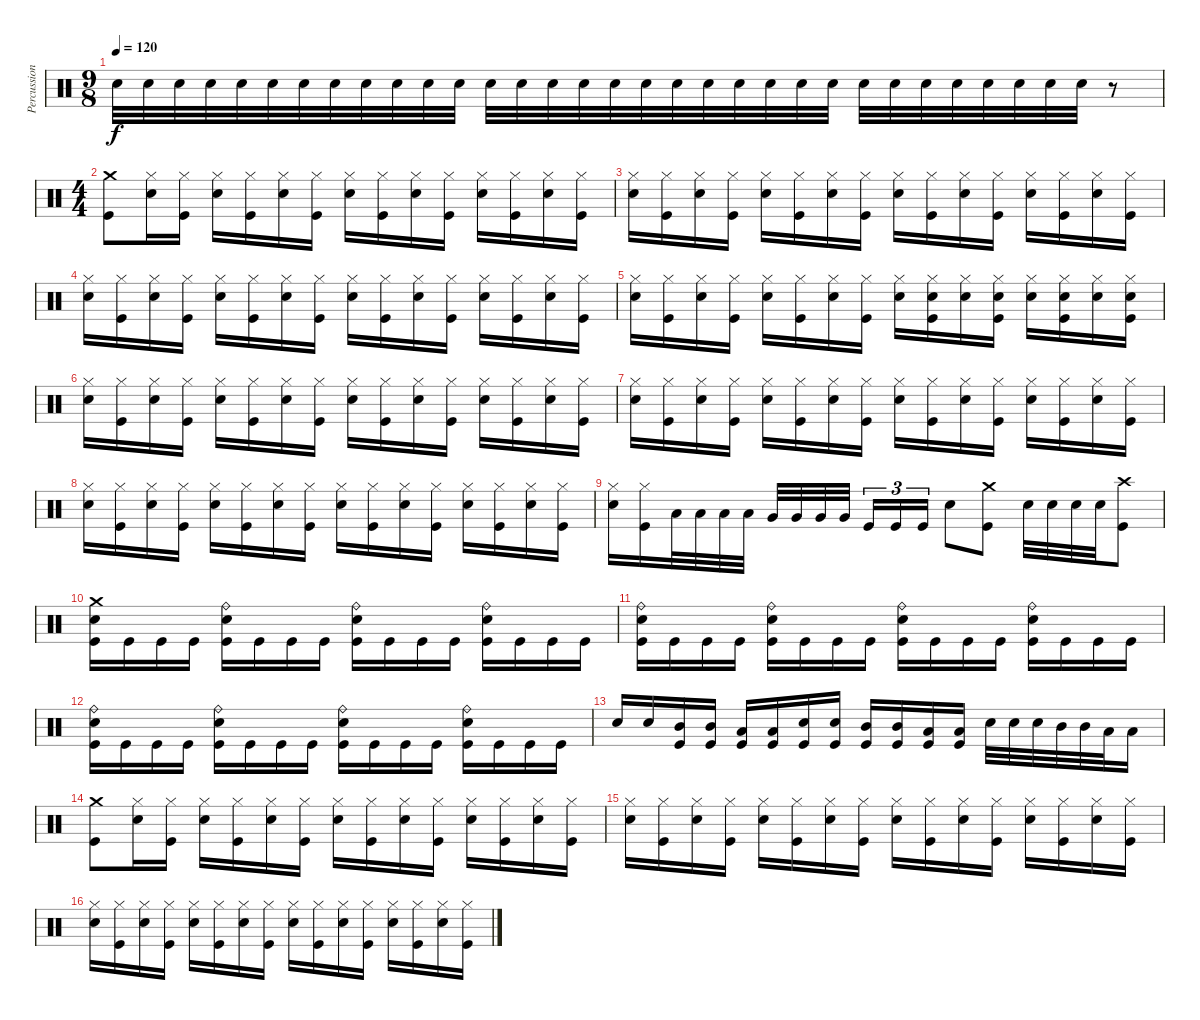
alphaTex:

\track ("Percussions" "Percussion") {instrument percussion}
\staff {score}
\articulation defaults
\ts (9 8)
\tempo 120
\clef neutral
\ks c "Electric Snare (hit)".32{dy f} "Electric Snare (hit)".32 "Electric Snare (hit)".32 "Electric Snare (hit)".32 "Electric Snare (hit)".32 "Electric Snare (hit)".32 "Electric Snare (hit)".32 "Electric Snare (hit)".32 "Electric Snare (hit)".32 "Electric Snare (hit)".32 "Electric Snare (hit)".32 "Electric Snare (hit)".32 "Electric Snare (hit)".32 "Electric Snare (hit)".32 "Electric Snare (hit)".32 "Electric Snare (hit)".32 "Electric Snare (hit)".32 "Electric Snare (hit)".32 "Electric Snare (hit)".32 "Electric Snare (hit)".32 "Electric Snare (hit)".32 "Electric Snare (hit)".32 "Electric Snare (hit)".32 "Electric Snare (hit)".32 "Electric Snare (hit)".32 "Electric Snare (hit)".32 "Electric Snare (hit)".32 "Electric Snare (hit)".32 "Electric Snare (hit)".32 "Electric Snare (hit)".32 "Electric Snare (hit)".32 "Electric Snare (hit)".32
r.8 |
\ts (4 4)
("Kick (hit)" "Crash medium (hit)").8 ("Electric Snare (hit)" "Hi-Hat (closed)").16 ("Kick (hit)" "Hi-Hat (closed)").16 ("Electric Snare (hit)" "Hi-Hat (closed)").16 ("Kick (hit)" "Hi-Hat (closed)").16 ("Electric Snare (hit)" "Hi-Hat (closed)").16 ("Kick (hit)" "Hi-Hat (closed)").16 ("Electric Snare (hit)" "Hi-Hat (closed)").16 ("Kick (hit)" "Hi-Hat (closed)").16 ("Electric Snare (hit)" "Hi-Hat (closed)").16 ("Kick (hit)" "Hi-Hat (closed)").16 ("Electric Snare (hit)" "Hi-Hat (closed)").16 ("Kick (hit)" "Hi-Hat (closed)").16 ("Electric Snare (hit)" "Hi-Hat (closed)").16 ("Kick (hit)" "Hi-Hat (closed)").16 |
("Electric Snare (hit)" "Hi-Hat (closed)").16 ("Kick (hit)" "Hi-Hat (closed)").16 ("Electric Snare (hit)" "Hi-Hat (closed)").16 ("Kick (hit)" "Hi-Hat (closed)").16 ("Electric Snare (hit)" "Hi-Hat (closed)").16 ("Kick (hit)" "Hi-Hat (closed)").16 ("Electric Snare (hit)" "Hi-Hat (closed)").16 ("Kick (hit)" "Hi-Hat (closed)").16 ("Electric Snare (hit)" "Hi-Hat (closed)").16 ("Kick (hit)" "Hi-Hat (closed)").16 ("Electric Snare (hit)" "Hi-Hat (closed)").16 ("Kick (hit)" "Hi-Hat (closed)").16 ("Electric Snare (hit)" "Hi-Hat (closed)").16 ("Kick (hit)" "Hi-Hat (closed)").16 ("Electric Snare (hit)" "Hi-Hat (closed)").16 ("Kick (hit)" "Hi-Hat (closed)").16 |
("Electric Snare (hit)" "Hi-Hat (closed)").16 ("Kick (hit)" "Hi-Hat (closed)").16 ("Electric Snare (hit)" "Hi-Hat (closed)").16 ("Kick (hit)" "Hi-Hat (closed)").16 ("Electric Snare (hit)" "Hi-Hat (closed)").16 ("Kick (hit)" "Hi-Hat (closed)").16 ("Electric Snare (hit)" "Hi-Hat (closed)").16 ("Kick (hit)" "Hi-Hat (closed)").16 ("Electric Snare (hit)" "Hi-Hat (closed)").16 ("Kick (hit)" "Hi-Hat (closed)").16 ("Electric Snare (hit)" "Hi-Hat (closed)").16 ("Kick (hit)" "Hi-Hat (closed)").16 ("Electric Snare (hit)" "Hi-Hat (closed)").16 ("Kick (hit)" "Hi-Hat (closed)").16 ("Electric Snare (hit)" "Hi-Hat (closed)").16 ("Kick (hit)" "Hi-Hat (closed)").16 |
("Electric Snare (hit)" "Hi-Hat (closed)").16 ("Kick (hit)" "Hi-Hat (closed)").16 ("Electric Snare (hit)" "Hi-Hat (closed)").16 ("Kick (hit)" "Hi-Hat (closed)").16 ("Electric Snare (hit)" "Hi-Hat (closed)").16 ("Kick (hit)" "Hi-Hat (closed)").16 ("Electric Snare (hit)" "Hi-Hat (closed)").16 ("Kick (hit)" "Hi-Hat (closed)").16 ("Electric Snare (hit)" "Hi-Hat (closed)").16 ("Kick (hit)" "Electric Snare (hit)" "Hi-Hat (closed)").16 ("Electric Snare (hit)" "Hi-Hat (closed)").16 ("Kick (hit)" "Electric Snare (hit)" "Hi-Hat (closed)").16 ("Electric Snare (hit)" "Hi-Hat (closed)").16 ("Kick (hit)" "Electric Snare (hit)" "Hi-Hat (closed)").16 ("Electric Snare (hit)" "Hi-Hat (closed)").16 ("Kick (hit)" "Electric Snare (hit)" "Hi-Hat (closed)").16 |
("Electric Snare (hit)" "Hi-Hat (closed)").16 ("Kick (hit)" "Hi-Hat (closed)").16 ("Electric Snare (hit)" "Hi-Hat (closed)").16 ("Kick (hit)" "Hi-Hat (closed)").16 ("Electric Snare (hit)" "Hi-Hat (closed)").16 ("Kick (hit)" "Hi-Hat (closed)").16 ("Electric Snare (hit)" "Hi-Hat (closed)").16 ("Kick (hit)" "Hi-Hat (closed)").16 ("Electric Snare (hit)" "Hi-Hat (closed)").16 ("Kick (hit)" "Hi-Hat (closed)").16 ("Electric Snare (hit)" "Hi-Hat (closed)").16 ("Kick (hit)" "Hi-Hat (closed)").16 ("Electric Snare (hit)" "Hi-Hat (closed)").16 ("Kick (hit)" "Hi-Hat (closed)").16 ("Electric Snare (hit)" "Hi-Hat (closed)").16 ("Kick (hit)" "Hi-Hat (closed)").16 |
("Electric Snare (hit)" "Hi-Hat (closed)").16 ("Kick (hit)" "Hi-Hat (closed)").16 ("Electric Snare (hit)" "Hi-Hat (closed)").16 ("Kick (hit)" "Hi-Hat (closed)").16 ("Electric Snare (hit)" "Hi-Hat (closed)").16 ("Kick (hit)" "Hi-Hat (closed)").16 ("Electric Snare (hit)" "Hi-Hat (closed)").16 ("Kick (hit)" "Hi-Hat (closed)").16 ("Electric Snare (hit)" "Hi-Hat (closed)").16 ("Kick (hit)" "Hi-Hat (closed)").16 ("Electric Snare (hit)" "Hi-Hat (closed)").16 ("Kick (hit)" "Hi-Hat (closed)").16 ("Electric Snare (hit)" "Hi-Hat (closed)").16 ("Kick (hit)" "Hi-Hat (closed)").16 ("Electric Snare (hit)" "Hi-Hat (closed)").16 ("Kick (hit)" "Hi-Hat (closed)").16 |
("Electric Snare (hit)" "Hi-Hat (closed)").16 ("Kick (hit)" "Hi-Hat (closed)").16 ("Electric Snare (hit)" "Hi-Hat (closed)").16 ("Kick (hit)" "Hi-Hat (closed)").16 ("Electric Snare (hit)" "Hi-Hat (closed)").16 ("Kick (hit)" "Hi-Hat (closed)").16 ("Electric Snare (hit)" "Hi-Hat (closed)").16 ("Kick (hit)" "Hi-Hat (closed)").16 ("Electric Snare (hit)" "Hi-Hat (closed)").16 ("Kick (hit)" "Hi-Hat (closed)").16 ("Electric Snare (hit)" "Hi-Hat (closed)").16 ("Kick (hit)" "Hi-Hat (closed)").16 ("Electric Snare (hit)" "Hi-Hat (closed)").16 ("Kick (hit)" "Hi-Hat (closed)").16 ("Electric Snare (hit)" "Hi-Hat (closed)").16 ("Kick (hit)" "Hi-Hat (closed)").16 |
("Electric Snare (hit)" "Hi-Hat (closed)").16 ("Kick (hit)" "Hi-Hat (closed)").16 "Low Tom (hit)".32 "Low Tom (hit)".32 "Low Tom (hit)".32 "Low Tom (hit)".32 "Very Low Tom (hit)".32 "Very Low Tom (hit)".32 "Very Low Tom (hit)".32 "Very Low Tom (hit)".32 "Kick (hit)".16{tu (3 2)} "Kick (hit)".16{tu (3 2)} "Kick (hit)".16{tu (3 2)} "Electric Snare (hit)".8 ("Kick (hit)" "Crash medium (hit)").8 "Electric Snare (hit)".32 "Electric Snare (hit)".32 "Electric Snare (hit)".32 "Electric Snare (hit)".32 ("Kick (hit)" "Crash high (hit)").8 |
("Kick (hit)" "Electric Snare (hit)" "Crash medium (hit)").16 "Kick (hit)".16 "Kick (hit)".16 "Kick (hit)".16 ("Kick (hit)" "Electric Snare (hit)" "Ride (bell)").16 "Kick (hit)".16 "Kick (hit)".16 "Kick (hit)".16 ("Kick (hit)" "Electric Snare (hit)" "Ride (bell)").16 "Kick (hit)".16 "Kick (hit)".16 "Kick (hit)".16 ("Kick (hit)" "Electric Snare (hit)" "Ride (bell)").16 "Kick (hit)".16 "Kick (hit)".16 "Kick (hit)".16 |
("Kick (hit)" "Electric Snare (hit)" "Ride (bell)").16 "Kick (hit)".16 "Kick (hit)".16 "Kick (hit)".16 ("Kick (hit)" "Electric Snare (hit)" "Ride (bell)").16 "Kick (hit)".16 "Kick (hit)".16 "Kick (hit)".16 ("Kick (hit)" "Electric Snare (hit)" "Ride (bell)").16 "Kick (hit)".16 "Kick (hit)".16 "Kick (hit)".16 ("Kick (hit)" "Electric Snare (hit)" "Ride (bell)").16 "Kick (hit)".16 "Kick (hit)".16 "Kick (hit)".16 |
("Kick (hit)" "Electric Snare (hit)" "Ride (bell)").16 "Kick (hit)".16 "Kick (hit)".16 "Kick (hit)".16 ("Kick (hit)" "Electric Snare (hit)" "Ride (bell)").16 "Kick (hit)".16 "Kick (hit)".16 "Kick (hit)".16 ("Kick (hit)" "Electric Snare (hit)" "Ride (bell)").16 "Kick (hit)".16 "Kick (hit)".16 "Kick (hit)".16 ("Kick (hit)" "Electric Snare (hit)" "Ride (bell)").16 "Kick (hit)".16 "Kick (hit)".16 "Kick (hit)".16 |
"Electric Snare (hit)".16 "Electric Snare (hit)".16 ("Kick (hit)" "Mid Tom (hit)").16 ("Kick (hit)" "Mid Tom (hit)").16 ("Kick (hit)" "Low Tom (hit)").16 ("Kick (hit)" "Low Tom (hit)").16 ("Kick (hit)" "Electric Snare (hit)").16 ("Kick (hit)" "Electric Snare (hit)").16 ("Kick (hit)" "Mid Tom (hit)").16 ("Kick (hit)" "Mid Tom (hit)").16 ("Kick (hit)" "Low Tom (hit)").16 ("Kick (hit)" "Low Tom (hit)").16 "Electric Snare (hit)".32 "Electric Snare (hit)".32 "Electric Snare (hit)".32 "Mid Tom (hit)".32 "Mid Tom (hit)".32 "Low Tom (hit)".32 "Low Tom (hit)".16 |
("Kick (hit)" "Crash medium (hit)").8 ("Electric Snare (hit)" "Hi-Hat (closed)").16 ("Kick (hit)" "Hi-Hat (closed)").16 ("Electric Snare (hit)" "Hi-Hat (closed)").16 ("Kick (hit)" "Hi-Hat (closed)").16 ("Electric Snare (hit)" "Hi-Hat (closed)").16 ("Kick (hit)" "Hi-Hat (closed)").16 ("Electric Snare (hit)" "Hi-Hat (closed)").16 ("Kick (hit)" "Hi-Hat (closed)").16 ("Electric Snare (hit)" "Hi-Hat (closed)").16 ("Kick (hit)" "Hi-Hat (closed)").16 ("Electric Snare (hit)" "Hi-Hat (closed)").16 ("Kick (hit)" "Hi-Hat (closed)").16 ("Electric Snare (hit)" "Hi-Hat (closed)").16 ("Kick (hit)" "Hi-Hat (closed)").16 |
("Electric Snare (hit)" "Hi-Hat (closed)").16 ("Kick (hit)" "Hi-Hat (closed)").16 ("Electric Snare (hit)" "Hi-Hat (closed)").16 ("Kick (hit)" "Hi-Hat (closed)").16 ("Electric Snare (hit)" "Hi-Hat (closed)").16 ("Kick (hit)" "Hi-Hat (closed)").16 ("Electric Snare (hit)" "Hi-Hat (closed)").16 ("Kick (hit)" "Hi-Hat (closed)").16 ("Electric Snare (hit)" "Hi-Hat (closed)").16 ("Kick (hit)" "Hi-Hat (closed)").16 ("Electric Snare (hit)" "Hi-Hat (closed)").16 ("Kick (hit)" "Hi-Hat (closed)").16 ("Electric Snare (hit)" "Hi-Hat (closed)").16 ("Kick (hit)" "Hi-Hat (closed)").16 ("Electric Snare (hit)" "Hi-Hat (closed)").16 ("Kick (hit)" "Hi-Hat (closed)").16 |
("Electric Snare (hit)" "Hi-Hat (closed)").16 ("Kick (hit)" "Hi-Hat (closed)").16 ("Electric Snare (hit)" "Hi-Hat (closed)").16 ("Kick (hit)" "Hi-Hat (closed)").16 ("Electric Snare (hit)" "Hi-Hat (closed)").16 ("Kick (hit)" "Hi-Hat (closed)").16 ("Electric Snare (hit)" "Hi-Hat (closed)").16 ("Kick (hit)" "Hi-Hat (closed)").16 ("Electric Snare (hit)" "Hi-Hat (closed)").16 ("Kick (hit)" "Hi-Hat (closed)").16 ("Electric Snare (hit)" "Hi-Hat (closed)").16 ("Kick (hit)" "Hi-Hat (closed)").16 ("Electric Snare (hit)" "Hi-Hat (closed)").16 ("Kick (hit)" "Hi-Hat (closed)").16 ("Electric Snare (hit)" "Hi-Hat (closed)").16 ("Kick (hit)" "Hi-Hat (closed)").16
